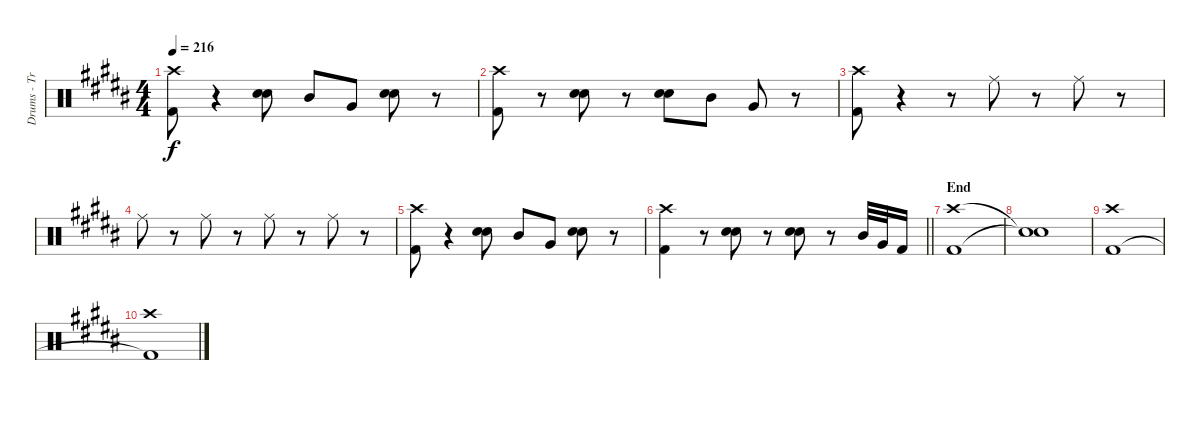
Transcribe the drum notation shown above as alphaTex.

\track ("Drums - Travis Barker" "Drums - Tr") {instrument percussion}
\staff {score}
\articulation defaults
\ts (4 4)
\tempo 216
\clef neutral
\ks b
("Kick (hit) 2" "Crash high (hit)").8{dy f} r.4 ("Snare (hit) 2" "Snare (hit) 2").8 "Mid Tom (hit)".8 "Very Low Tom (hit)".8 ("Snare (hit) 2" "Snare (hit) 2").8 r.8 |
("Kick (hit) 2" "Crash high (hit)").8 r.8 ("Snare (hit) 2" "Snare (hit) 2").8 r.8 ("Snare (hit) 2" "Snare (hit) 2").8 "Mid Tom (hit)".8 "Very Low Tom (hit)".8 r.8 |
("Kick (hit) 2" "Crash high (hit)").8 r.4 r.8 "Ride (middle)".8 r.8 "Ride (middle)".8 r.8 |
"Ride (middle)".8 r.8 "Ride (middle)".8 r.8 "Ride (middle)".8 r.8 "Ride (middle)".8 r.8 |
("Kick (hit) 2" "Crash high (hit)").8 r.4 ("Snare (hit) 2" "Snare (hit) 2").8 "Mid Tom (hit)".8 "Very Low Tom (hit)".8 ("Snare (hit) 2" "Snare (hit) 2").8 r.8 |
\barLineRight lightlight
("Kick (hit) 2" "Crash high (hit)").4 r.8 ("Snare (hit) 2" "Snare (hit) 2").8 r.8 ("Snare (hit) 2" "Snare (hit) 2").8 r.8 "Mid Tom (hit)".32 "Very Low Tom (hit)".32 "Kick (hit) 2".16 |
\section ("" "End")
("Kick (hit) 2" "Crash high (hit)").1 |
("Snare (hit)"{t} "Snare (hit)"{t}).1 |
("Kick (hit) 2" "Crash high (hit)").1{volume 0} |
("Kick (hit) 2"{t} "Crash high (hit)").1
